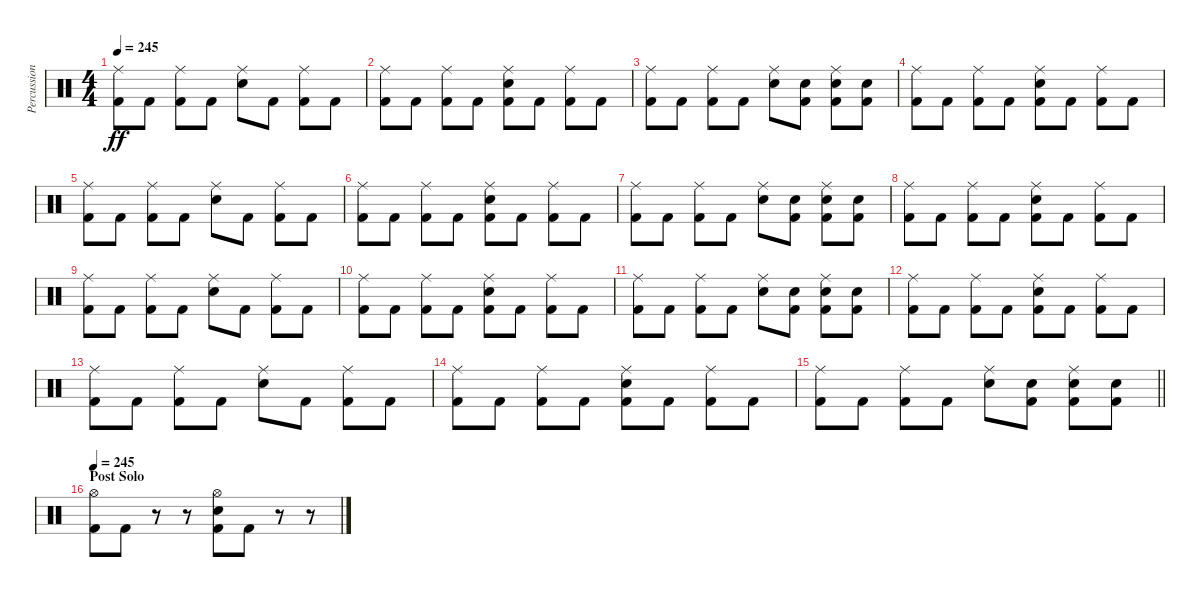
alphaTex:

\track ("Percussion" "Percussion") {instrument percussion}
\staff {score}
\articulation defaults
\ts (4 4)
\tempo 245
\clef neutral
\ks c
("Ride (middle)" "Kick (hit) 2").8{dy ff} "Kick (hit) 2".8 ("Ride (middle)" "Kick (hit) 2").8 "Kick (hit) 2".8 ("Ride (middle)" "Electric Snare (hit)").8 "Kick (hit) 2".8 ("Ride (middle)" "Kick (hit) 2").8 "Kick (hit) 2".8 |
("Ride (middle)" "Kick (hit) 2").8 "Kick (hit) 2".8 ("Ride (middle)" "Kick (hit) 2").8 "Kick (hit) 2".8 ("Ride (middle)" "Electric Snare (hit)" "Kick (hit) 2").8 "Kick (hit) 2".8 ("Ride (middle)" "Kick (hit) 2").8 "Kick (hit) 2".8 |
("Ride (middle)" "Kick (hit) 2").8 "Kick (hit) 2".8 ("Ride (middle)" "Kick (hit) 2").8 "Kick (hit) 2".8 ("Ride (middle)" "Electric Snare (hit)").8 ("Electric Snare (hit)" "Kick (hit) 2").8 ("Ride (middle)" "Electric Snare (hit)" "Kick (hit) 2").8 ("Electric Snare (hit)" "Kick (hit) 2").8 |
("Ride (middle)" "Kick (hit) 2").8 "Kick (hit) 2".8 ("Ride (middle)" "Kick (hit) 2").8 "Kick (hit) 2".8 ("Ride (middle)" "Electric Snare (hit)" "Kick (hit) 2").8 "Kick (hit) 2".8 ("Ride (middle)" "Kick (hit) 2").8 "Kick (hit) 2".8 |
("Ride (middle)" "Kick (hit) 2").8 "Kick (hit) 2".8 ("Ride (middle)" "Kick (hit) 2").8 "Kick (hit) 2".8 ("Ride (middle)" "Electric Snare (hit)").8 "Kick (hit) 2".8 ("Ride (middle)" "Kick (hit) 2").8 "Kick (hit) 2".8 |
("Ride (middle)" "Kick (hit) 2").8 "Kick (hit) 2".8 ("Ride (middle)" "Kick (hit) 2").8 "Kick (hit) 2".8 ("Ride (middle)" "Electric Snare (hit)" "Kick (hit) 2").8 "Kick (hit) 2".8 ("Ride (middle)" "Kick (hit) 2").8 "Kick (hit) 2".8 |
("Ride (middle)" "Kick (hit) 2").8 "Kick (hit) 2".8 ("Ride (middle)" "Kick (hit) 2").8 "Kick (hit) 2".8 ("Ride (middle)" "Electric Snare (hit)").8 ("Electric Snare (hit)" "Kick (hit) 2").8 ("Ride (middle)" "Electric Snare (hit)" "Kick (hit) 2").8 ("Electric Snare (hit)" "Kick (hit) 2").8 |
("Ride (middle)" "Kick (hit) 2").8 "Kick (hit) 2".8 ("Ride (middle)" "Kick (hit) 2").8 "Kick (hit) 2".8 ("Ride (middle)" "Electric Snare (hit)" "Kick (hit) 2").8 "Kick (hit) 2".8 ("Ride (middle)" "Kick (hit) 2").8 "Kick (hit) 2".8 |
("Ride (middle)" "Kick (hit) 2").8 "Kick (hit) 2".8 ("Ride (middle)" "Kick (hit) 2").8 "Kick (hit) 2".8 ("Ride (middle)" "Electric Snare (hit)").8 "Kick (hit) 2".8 ("Ride (middle)" "Kick (hit) 2").8 "Kick (hit) 2".8 |
("Ride (middle)" "Kick (hit) 2").8 "Kick (hit) 2".8 ("Ride (middle)" "Kick (hit) 2").8 "Kick (hit) 2".8 ("Ride (middle)" "Electric Snare (hit)" "Kick (hit) 2").8 "Kick (hit) 2".8 ("Ride (middle)" "Kick (hit) 2").8 "Kick (hit) 2".8 |
("Ride (middle)" "Kick (hit) 2").8 "Kick (hit) 2".8 ("Ride (middle)" "Kick (hit) 2").8 "Kick (hit) 2".8 ("Ride (middle)" "Electric Snare (hit)").8 ("Electric Snare (hit)" "Kick (hit) 2").8 ("Ride (middle)" "Electric Snare (hit)" "Kick (hit) 2").8 ("Electric Snare (hit)" "Kick (hit) 2").8 |
("Ride (middle)" "Kick (hit) 2").8 "Kick (hit) 2".8 ("Ride (middle)" "Kick (hit) 2").8 "Kick (hit) 2".8 ("Ride (middle)" "Electric Snare (hit)" "Kick (hit) 2").8 "Kick (hit) 2".8 ("Ride (middle)" "Kick (hit) 2").8 "Kick (hit) 2".8 |
("Ride (middle)" "Kick (hit) 2").8 "Kick (hit) 2".8 ("Ride (middle)" "Kick (hit) 2").8 "Kick (hit) 2".8 ("Ride (middle)" "Electric Snare (hit)").8 "Kick (hit) 2".8 ("Ride (middle)" "Kick (hit) 2").8 "Kick (hit) 2".8 |
("Ride (middle)" "Kick (hit) 2").8 "Kick (hit) 2".8 ("Ride (middle)" "Kick (hit) 2").8 "Kick (hit) 2".8 ("Ride (middle)" "Electric Snare (hit)" "Kick (hit) 2").8 "Kick (hit) 2".8 ("Ride (middle)" "Kick (hit) 2").8 "Kick (hit) 2".8 |
\barLineRight lightlight
("Ride (middle)" "Kick (hit) 2").8 "Kick (hit) 2".8 ("Ride (middle)" "Kick (hit) 2").8 "Kick (hit) 2".8 ("Ride (middle)" "Electric Snare (hit)").8 ("Electric Snare (hit)" "Kick (hit) 2").8 ("Ride (middle)" "Electric Snare (hit)" "Kick (hit) 2").8 ("Electric Snare (hit)" "Kick (hit) 2").8 |
\section ("" "Post Solo")
\tempo 245
("Hi-Hat (open)" "Kick (hit) 2").8 "Kick (hit) 2".8 r.8 r.8 ("Hi-Hat (open)" "Electric Snare (hit)" "Kick (hit) 2").8 "Kick (hit) 2".8 r.8 r.8
